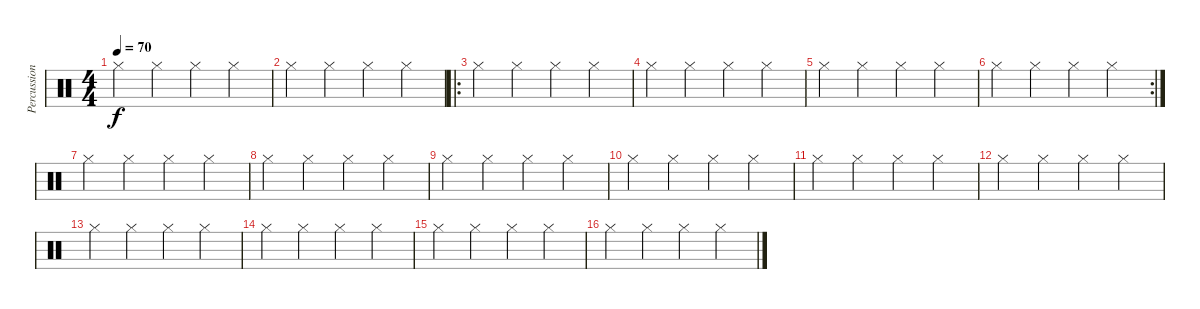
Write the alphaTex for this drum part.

\track ("Percussion" "Percussion") {instrument percussion}
\staff {score}
\articulation defaults
\ts (4 4)
\tempo 70
\clef neutral
\ks c "Hi-Hat (closed)".4{dy f} "Hi-Hat (closed)".4 "Hi-Hat (closed)".4 "Hi-Hat (closed)".4
|
"Hi-Hat (closed)".4 "Hi-Hat (closed)".4 "Hi-Hat (closed)".4 "Hi-Hat (closed)".4 |
\ro "Hi-Hat (closed)".4 "Hi-Hat (closed)".4 "Hi-Hat (closed)".4 "Hi-Hat (closed)".4
|
"Hi-Hat (closed)".4 "Hi-Hat (closed)".4 "Hi-Hat (closed)".4 "Hi-Hat (closed)".4 |
"Hi-Hat (closed)".4 "Hi-Hat (closed)".4 "Hi-Hat (closed)".4 "Hi-Hat (closed)".4 |
\rc 2 "Hi-Hat (closed)".4 "Hi-Hat (closed)".4 "Hi-Hat (closed)".4 "Hi-Hat (closed)".4
|
"Hi-Hat (closed)".4 "Hi-Hat (closed)".4 "Hi-Hat (closed)".4 "Hi-Hat (closed)".4 |
"Hi-Hat (closed)".4 "Hi-Hat (closed)".4 "Hi-Hat (closed)".4 "Hi-Hat (closed)".4 |
"Hi-Hat (closed)".4 "Hi-Hat (closed)".4 "Hi-Hat (closed)".4 "Hi-Hat (closed)".4 |
"Hi-Hat (closed)".4 "Hi-Hat (closed)".4 "Hi-Hat (closed)".4 "Hi-Hat (closed)".4 |
"Hi-Hat (closed)".4 "Hi-Hat (closed)".4 "Hi-Hat (closed)".4 "Hi-Hat (closed)".4 |
"Hi-Hat (closed)".4 "Hi-Hat (closed)".4 "Hi-Hat (closed)".4 "Hi-Hat (closed)".4 |
"Hi-Hat (closed)".4 "Hi-Hat (closed)".4 "Hi-Hat (closed)".4 "Hi-Hat (closed)".4 |
"Hi-Hat (closed)".4 "Hi-Hat (closed)".4 "Hi-Hat (closed)".4 "Hi-Hat (closed)".4 |
"Hi-Hat (closed)".4 "Hi-Hat (closed)".4 "Hi-Hat (closed)".4 "Hi-Hat (closed)".4 |
"Hi-Hat (closed)".4 "Hi-Hat (closed)".4 "Hi-Hat (closed)".4 "Hi-Hat (closed)".4
